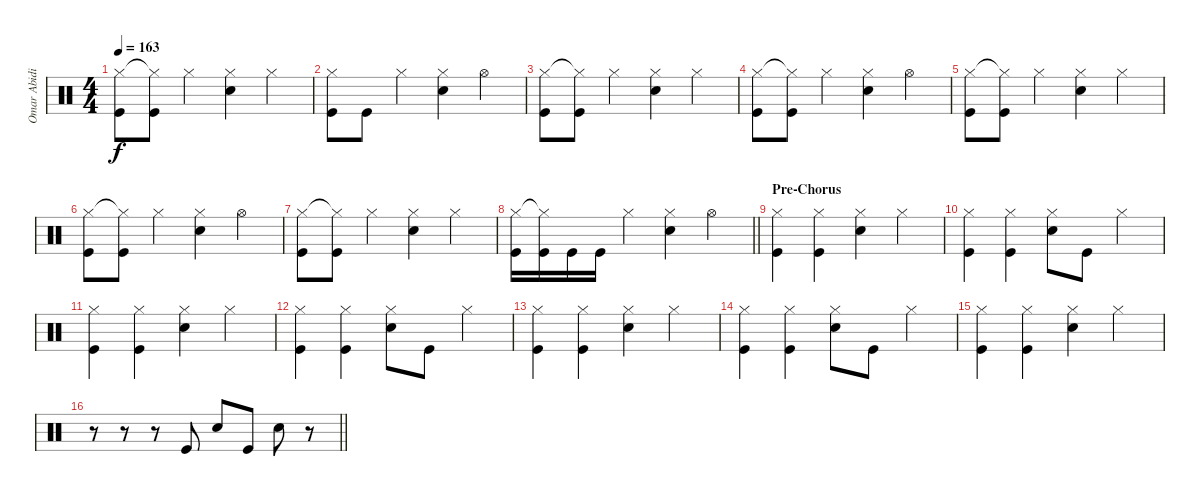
\track ("Omar Abidi" "Omar Abidi") {instrument percussion}
\staff {score}
\articulation defaults
\ts (4 4)
\tempo 163
\clef neutral
\ks c
("Hi-Hat (closed)" "Kick (hit)").8{dy f} ("Hi-Hat (closed)"{t} "Kick (hit)").8 "Hi-Hat (closed)".4 ("Hi-Hat (closed)" "Snare (hit) 2").4 "Hi-Hat (closed)".4 |
("Hi-Hat (closed)" "Kick (hit)").8 "Kick (hit)".8 "Hi-Hat (closed)".4 ("Hi-Hat (closed)" "Snare (hit) 2").4 "Hi-Hat (open)".4 |
("Hi-Hat (closed)" "Kick (hit)").8 ("Hi-Hat (closed)"{t} "Kick (hit)").8 "Hi-Hat (closed)".4 ("Hi-Hat (closed)" "Snare (hit) 2").4 "Hi-Hat (closed)".4 |
("Hi-Hat (closed)" "Kick (hit)").8 ("Hi-Hat (closed)"{t} "Kick (hit)").8 "Hi-Hat (closed)".4 ("Hi-Hat (closed)" "Snare (hit) 2").4 "Hi-Hat (open)".4 |
("Hi-Hat (closed)" "Kick (hit)").8 ("Hi-Hat (closed)"{t} "Kick (hit)").8 "Hi-Hat (closed)".4 ("Hi-Hat (closed)" "Snare (hit) 2").4 "Hi-Hat (closed)".4 |
("Hi-Hat (closed)" "Kick (hit)").8 ("Hi-Hat (closed)"{t} "Kick (hit)").8 "Hi-Hat (closed)".4 ("Hi-Hat (closed)" "Snare (hit) 2").4 "Hi-Hat (open)".4 |
("Hi-Hat (closed)" "Kick (hit)").8 ("Hi-Hat (closed)"{t} "Kick (hit)").8 "Hi-Hat (closed)".4 ("Hi-Hat (closed)" "Snare (hit) 2").4 "Hi-Hat (closed)".4 |
\barLineRight lightlight
("Hi-Hat (closed)" "Kick (hit)").16 ("Hi-Hat (closed)"{t} "Kick (hit)").16 "Kick (hit)".16 "Kick (hit)".16 "Hi-Hat (closed)".4 ("Hi-Hat (closed)" "Snare (hit) 2").4 "Hi-Hat (open)".4 |
\section ("" "Pre-Chorus")
("Hi-Hat (closed)" "Kick (hit)").4 ("Hi-Hat (closed)" "Kick (hit)").4 ("Hi-Hat (closed)" "Snare (hit) 2").4 "Hi-Hat (closed)".4 |
("Hi-Hat (closed)" "Kick (hit)").4 ("Hi-Hat (closed)" "Kick (hit)").4 ("Hi-Hat (closed)" "Snare (hit) 2").8 "Kick (hit)".8 "Hi-Hat (closed)".4 |
("Hi-Hat (closed)" "Kick (hit)").4 ("Hi-Hat (closed)" "Kick (hit)").4 ("Hi-Hat (closed)" "Snare (hit) 2").4 "Hi-Hat (closed)".4 |
("Hi-Hat (closed)" "Kick (hit)").4 ("Hi-Hat (closed)" "Kick (hit)").4 ("Hi-Hat (closed)" "Snare (hit) 2").8 "Kick (hit)".8 "Hi-Hat (closed)".4 |
("Hi-Hat (closed)" "Kick (hit)").4 ("Hi-Hat (closed)" "Kick (hit)").4 ("Hi-Hat (closed)" "Snare (hit) 2").4 "Hi-Hat (closed)".4 |
("Hi-Hat (closed)" "Kick (hit)").4 ("Hi-Hat (closed)" "Kick (hit)").4 ("Hi-Hat (closed)" "Snare (hit) 2").8 "Kick (hit)".8 "Hi-Hat (closed)".4 |
("Hi-Hat (closed)" "Kick (hit)").4 ("Hi-Hat (closed)" "Kick (hit)").4 ("Hi-Hat (closed)" "Snare (hit) 2").4 "Hi-Hat (closed)".4 |
\barLineRight lightlight
r.8 r.8 r.8 "Kick (hit)".8 "Snare (hit) 2".8 "Kick (hit)".8 "Snare (hit) 2".8 r.8
